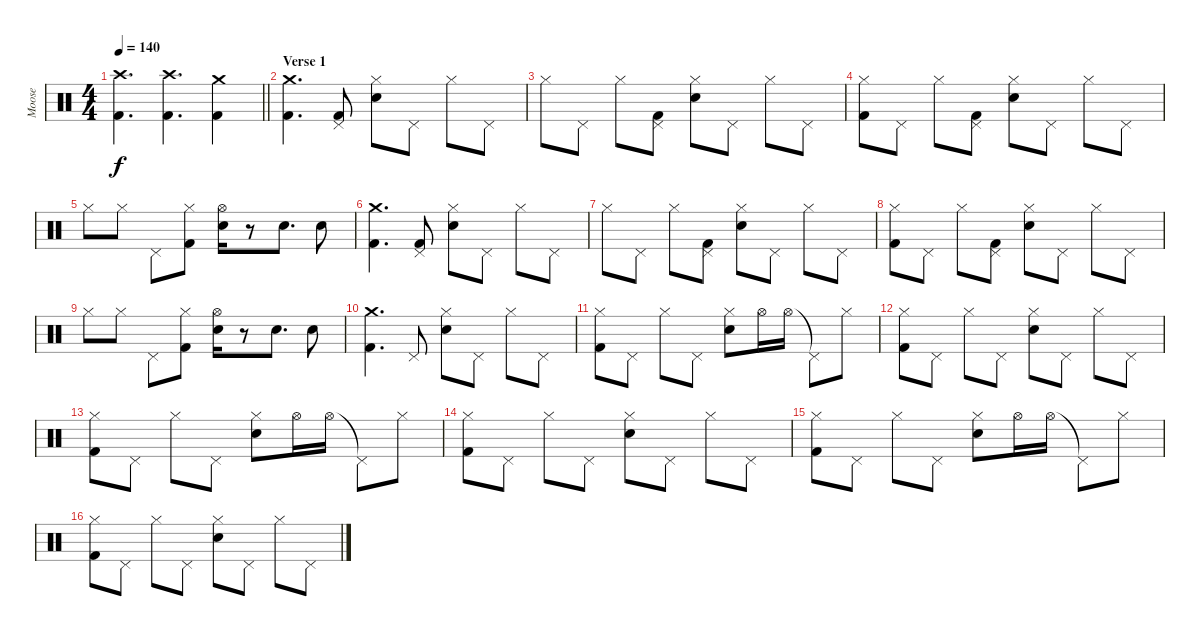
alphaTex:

\track ("Moose" "Moose") {instrument percussion}
\staff {score}
\articulation defaults
\ts (4 4)
\tempo 140
\clef neutral
\barLineRight lightlight
\ks c
("Crash high (hit)" "Kick (hit) 2").4{d dy f} ("Crash high (hit)" "Kick (hit) 2").4{d} ("Crash medium (hit)" "Kick (hit) 2").4 |
\section ("" "Verse 1")
("Crash medium (hit)" "Kick (hit) 2").4{d} ("Pedal Hi-Hat (hit)" "Kick (hit) 2").8 ("Hi-Hat (closed)" "Snare (hit) 2").8 "Pedal Hi-Hat (hit)".8 "Hi-Hat (closed)".8 "Pedal Hi-Hat (hit)".8 |
"Hi-Hat (closed)".8 "Pedal Hi-Hat (hit)".8 "Hi-Hat (closed)".8 ("Pedal Hi-Hat (hit)" "Kick (hit) 2").8 ("Hi-Hat (closed)" "Snare (hit) 2").8 "Pedal Hi-Hat (hit)".8 "Hi-Hat (closed)".8 "Pedal Hi-Hat (hit)".8 |
("Hi-Hat (closed)" "Kick (hit) 2").8 "Pedal Hi-Hat (hit)".8 "Hi-Hat (closed)".8 ("Pedal Hi-Hat (hit)" "Kick (hit) 2").8 ("Hi-Hat (closed)" "Snare (hit) 2").8 "Pedal Hi-Hat (hit)".8 "Hi-Hat (closed)".8 "Pedal Hi-Hat (hit)".8 |
"Hi-Hat (closed)".8 "Hi-Hat (closed)".8 "Pedal Hi-Hat (hit)".8 ("Hi-Hat (closed)" "Kick (hit) 2").8 ("Hi-Hat (open)" "Snare (hit) 2").16 r.8 "Snare (hit) 2".8{d} "Snare (hit) 2".8 |
("Crash medium (hit)" "Kick (hit) 2").4{d} ("Pedal Hi-Hat (hit)" "Kick (hit) 2").8 ("Hi-Hat (closed)" "Snare (hit) 2").8 "Pedal Hi-Hat (hit)".8 "Hi-Hat (closed)".8 "Pedal Hi-Hat (hit)".8 |
"Hi-Hat (closed)".8 "Pedal Hi-Hat (hit)".8 "Hi-Hat (closed)".8 ("Pedal Hi-Hat (hit)" "Kick (hit) 2").8 ("Hi-Hat (closed)" "Snare (hit) 2").8 "Pedal Hi-Hat (hit)".8 "Hi-Hat (closed)".8 "Pedal Hi-Hat (hit)".8 |
("Hi-Hat (closed)" "Kick (hit) 2").8 "Pedal Hi-Hat (hit)".8 "Hi-Hat (closed)".8 ("Pedal Hi-Hat (hit)" "Kick (hit) 2").8 ("Hi-Hat (closed)" "Snare (hit) 2").8 "Pedal Hi-Hat (hit)".8 "Hi-Hat (closed)".8 "Pedal Hi-Hat (hit)".8 |
"Hi-Hat (closed)".8 "Hi-Hat (closed)".8 "Pedal Hi-Hat (hit)".8 ("Hi-Hat (closed)" "Kick (hit) 2").8 ("Hi-Hat (open)" "Snare (hit) 2").16 r.8 "Snare (hit) 2".8{d} "Snare (hit) 2".8 |
("Crash medium (hit)" "Kick (hit) 2").4{d} "Pedal Hi-Hat (hit)".8 ("Hi-Hat (closed)" "Snare (hit) 2").8 "Pedal Hi-Hat (hit)".8 "Hi-Hat (closed)".8 "Pedal Hi-Hat (hit)".8 |
("Hi-Hat (closed)" "Kick (hit) 2").8 "Pedal Hi-Hat (hit)".8 "Hi-Hat (closed)".8 "Pedal Hi-Hat (hit)".8 ("Hi-Hat (closed)" "Snare (hit) 2").8 "Hi-Hat (open)".16 "Hi-Hat (open)".16 "Pedal Hi-Hat (hit)"{t}.8 "Hi-Hat (closed)".8 |
("Hi-Hat (closed)" "Kick (hit) 2").8 "Pedal Hi-Hat (hit)".8 "Hi-Hat (closed)".8 "Pedal Hi-Hat (hit)".8 ("Hi-Hat (closed)" "Snare (hit) 2").8 "Pedal Hi-Hat (hit)".8 "Hi-Hat (closed)".8 "Pedal Hi-Hat (hit)".8 |
("Hi-Hat (closed)" "Kick (hit) 2").8 "Pedal Hi-Hat (hit)".8 "Hi-Hat (closed)".8 "Pedal Hi-Hat (hit)".8 ("Hi-Hat (closed)" "Snare (hit) 2").8 "Hi-Hat (open)".16 "Hi-Hat (open)".16 "Pedal Hi-Hat (hit)"{t}.8 "Hi-Hat (closed)".8 |
("Hi-Hat (closed)" "Kick (hit) 2").8 "Pedal Hi-Hat (hit)".8 "Hi-Hat (closed)".8 "Pedal Hi-Hat (hit)".8 ("Hi-Hat (closed)" "Snare (hit) 2").8 "Pedal Hi-Hat (hit)".8 "Hi-Hat (closed)".8 "Pedal Hi-Hat (hit)".8 |
("Hi-Hat (closed)" "Kick (hit) 2").8 "Pedal Hi-Hat (hit)".8 "Hi-Hat (closed)".8 "Pedal Hi-Hat (hit)".8 ("Hi-Hat (closed)" "Snare (hit) 2").8 "Hi-Hat (open)".16 "Hi-Hat (open)".16 "Pedal Hi-Hat (hit)"{t}.8 "Hi-Hat (closed)".8 |
("Hi-Hat (closed)" "Kick (hit) 2").8 "Pedal Hi-Hat (hit)".8 "Hi-Hat (closed)".8 "Pedal Hi-Hat (hit)".8 ("Hi-Hat (closed)" "Snare (hit) 2").8 "Pedal Hi-Hat (hit)".8 "Hi-Hat (closed)".8 "Pedal Hi-Hat (hit)".8
